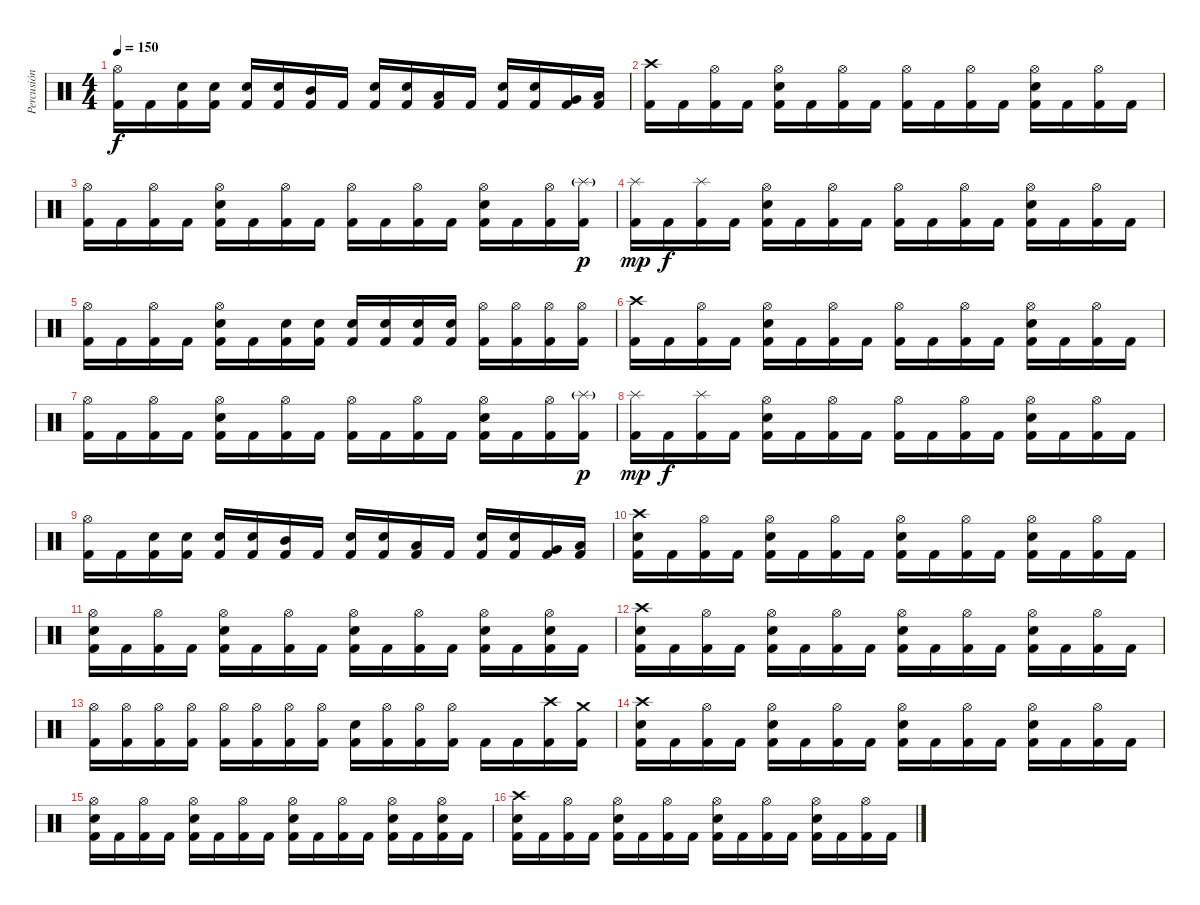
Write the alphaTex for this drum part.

\track ("Percusión" "Percusión") {instrument percussion}
\staff {score}
\articulation defaults
\ts (4 4)
\tempo 150
\clef neutral
\ks c
("Hi-Hat (open)" "Kick (hit) 2").16{dy f} "Kick (hit) 2".16 ("Snare (hit) 2" "Kick (hit) 2").16 ("Snare (hit) 2" "Kick (hit) 2").16 ("Snare (hit) 2" "Kick (hit) 2").16 ("Snare (hit) 2" "Kick (hit) 2").16 ("Mid Tom (hit)" "Kick (hit) 2").16 "Kick (hit) 2".16 ("Snare (hit) 2" "Kick (hit) 2").16 ("Snare (hit) 2" "Kick (hit) 2").16 ("Low Tom (hit)" "Kick (hit) 2").16 "Kick (hit) 2".16 ("Snare (hit) 2" "Kick (hit) 2").16 ("Snare (hit) 2" "Kick (hit) 2").16 ("Very Low Tom (hit)" "Kick (hit) 2").16 ("Low Floor Tom (hit)" "Kick (hit) 2").16 |
("Crash high (hit)" "Kick (hit) 2").16 "Kick (hit) 2".16 ("Hi-Hat (open)" "Kick (hit) 2").16 "Kick (hit) 2".16 ("Hi-Hat (open)" "Snare (hit) 2" "Kick (hit) 2").16 "Kick (hit) 2".16 ("Hi-Hat (open)" "Kick (hit) 2").16 "Kick (hit) 2".16 ("Hi-Hat (open)" "Kick (hit) 2").16 "Kick (hit) 2".16 ("Hi-Hat (open)" "Kick (hit) 2").16 "Kick (hit) 2".16 ("Hi-Hat (open)" "Snare (hit) 2" "Kick (hit) 2").16 "Kick (hit) 2".16 ("Hi-Hat (open)" "Kick (hit) 2").16 "Kick (hit) 2".16 |
("Hi-Hat (open)" "Kick (hit) 2").16 "Kick (hit) 2".16 ("Hi-Hat (open)" "Kick (hit) 2").16 "Kick (hit) 2".16 ("Hi-Hat (open)" "Snare (hit) 2" "Kick (hit) 2").16 "Kick (hit) 2".16 ("Hi-Hat (open)" "Kick (hit) 2").16 "Kick (hit) 2".16 ("Hi-Hat (open)" "Kick (hit) 2").16 "Kick (hit) 2".16 ("Hi-Hat (open)" "Kick (hit) 2").16 "Kick (hit) 2".16 ("Hi-Hat (open)" "Snare (hit) 2" "Kick (hit) 2").16 "Kick (hit) 2".16 ("Hi-Hat (open)" "Kick (hit) 2").16 ("Splash (hit)"{g} "Kick (hit) 2").16{dy p} |
("Splash (hit)" "Kick (hit) 2").16{dy mp} "Kick (hit) 2".16{dy f} ("Splash (hit)" "Kick (hit) 2").16 "Kick (hit) 2".16 ("Hi-Hat (open)" "Snare (hit) 2" "Kick (hit) 2").16 "Kick (hit) 2".16 ("Hi-Hat (open)" "Kick (hit) 2").16 "Kick (hit) 2".16 ("Hi-Hat (open)" "Kick (hit) 2").16 "Kick (hit) 2".16 ("Hi-Hat (open)" "Kick (hit) 2").16 "Kick (hit) 2".16 ("Hi-Hat (open)" "Snare (hit) 2" "Kick (hit) 2").16 "Kick (hit) 2".16 ("Hi-Hat (open)" "Kick (hit) 2").16 "Kick (hit) 2".16 |
("Hi-Hat (open)" "Kick (hit) 2").16 "Kick (hit) 2".16 ("Hi-Hat (open)" "Kick (hit) 2").16 "Kick (hit) 2".16 ("Hi-Hat (open)" "Snare (hit) 2" "Kick (hit) 2").16 "Kick (hit) 2".16 ("Snare (hit) 2" "Kick (hit) 2").16 ("Snare (hit) 2" "Kick (hit) 2").16 ("Snare (hit) 2" "Kick (hit) 2").16 ("Snare (hit) 2" "Kick (hit) 2").16 ("Snare (hit) 2" "Kick (hit) 2").16 ("Snare (hit) 2" "Kick (hit) 2").16 ("Hi-Hat (open)" "Kick (hit) 2").16 ("Hi-Hat (open)" "Kick (hit) 2").16 ("Hi-Hat (open)" "Kick (hit) 2").16 ("Hi-Hat (open)" "Kick (hit) 2").16 |
("Crash high (hit)" "Kick (hit) 2").16 "Kick (hit) 2".16 ("Hi-Hat (open)" "Kick (hit) 2").16 "Kick (hit) 2".16 ("Hi-Hat (open)" "Snare (hit) 2" "Kick (hit) 2").16 "Kick (hit) 2".16 ("Hi-Hat (open)" "Kick (hit) 2").16 "Kick (hit) 2".16 ("Hi-Hat (open)" "Kick (hit) 2").16 "Kick (hit) 2".16 ("Hi-Hat (open)" "Kick (hit) 2").16 "Kick (hit) 2".16 ("Hi-Hat (open)" "Snare (hit) 2" "Kick (hit) 2").16 "Kick (hit) 2".16 ("Hi-Hat (open)" "Kick (hit) 2").16 "Kick (hit) 2".16 |
("Hi-Hat (open)" "Kick (hit) 2").16 "Kick (hit) 2".16 ("Hi-Hat (open)" "Kick (hit) 2").16 "Kick (hit) 2".16 ("Hi-Hat (open)" "Snare (hit) 2" "Kick (hit) 2").16 "Kick (hit) 2".16 ("Hi-Hat (open)" "Kick (hit) 2").16 "Kick (hit) 2".16 ("Hi-Hat (open)" "Kick (hit) 2").16 "Kick (hit) 2".16 ("Hi-Hat (open)" "Kick (hit) 2").16 "Kick (hit) 2".16 ("Hi-Hat (open)" "Snare (hit) 2" "Kick (hit) 2").16 "Kick (hit) 2".16 ("Hi-Hat (open)" "Kick (hit) 2").16 ("Splash (hit)"{g} "Kick (hit) 2").16{dy p} |
("Splash (hit)" "Kick (hit) 2").16{dy mp} "Kick (hit) 2".16{dy f} ("Splash (hit)" "Kick (hit) 2").16 "Kick (hit) 2".16 ("Hi-Hat (open)" "Snare (hit) 2" "Kick (hit) 2").16 "Kick (hit) 2".16 ("Hi-Hat (open)" "Kick (hit) 2").16 "Kick (hit) 2".16 ("Hi-Hat (open)" "Kick (hit) 2").16 "Kick (hit) 2".16 ("Hi-Hat (open)" "Kick (hit) 2").16 "Kick (hit) 2".16 ("Hi-Hat (open)" "Snare (hit) 2" "Kick (hit) 2").16 "Kick (hit) 2".16 ("Hi-Hat (open)" "Kick (hit) 2").16 "Kick (hit) 2".16 |
("Hi-Hat (open)" "Kick (hit) 2").16 "Kick (hit) 2".16 ("Snare (hit) 2" "Kick (hit) 2").16 ("Snare (hit) 2" "Kick (hit) 2").16 ("Snare (hit) 2" "Kick (hit) 2").16 ("Snare (hit) 2" "Kick (hit) 2").16 ("Mid Tom (hit)" "Kick (hit) 2").16 "Kick (hit) 2".16 ("Snare (hit) 2" "Kick (hit) 2").16 ("Snare (hit) 2" "Kick (hit) 2").16 ("Low Tom (hit)" "Kick (hit) 2").16 "Kick (hit) 2".16 ("Snare (hit) 2" "Kick (hit) 2").16 ("Snare (hit) 2" "Kick (hit) 2").16 ("Very Low Tom (hit)" "Kick (hit) 2").16 ("Low Floor Tom (hit)" "Kick (hit) 2").16 |
("Crash high (hit)" "Snare (hit) 2" "Kick (hit) 2").16 "Kick (hit) 2".16 ("Hi-Hat (open)" "Kick (hit) 2").16 "Kick (hit) 2".16 ("Hi-Hat (open)" "Snare (hit) 2" "Kick (hit) 2").16 "Kick (hit) 2".16 ("Hi-Hat (open)" "Kick (hit) 2").16 "Kick (hit) 2".16 ("Hi-Hat (open)" "Snare (hit) 2" "Kick (hit) 2").16 "Kick (hit) 2".16 ("Hi-Hat (open)" "Kick (hit) 2").16 "Kick (hit) 2".16 ("Hi-Hat (open)" "Snare (hit) 2" "Kick (hit) 2").16 "Kick (hit) 2".16 ("Hi-Hat (open)" "Kick (hit) 2").16 "Kick (hit) 2".16 |
("Hi-Hat (open)" "Snare (hit) 2" "Kick (hit) 2").16 "Kick (hit) 2".16 ("Hi-Hat (open)" "Kick (hit) 2").16 "Kick (hit) 2".16 ("Hi-Hat (open)" "Snare (hit) 2" "Kick (hit) 2").16 "Kick (hit) 2".16 ("Hi-Hat (open)" "Kick (hit) 2").16 "Kick (hit) 2".16 ("Hi-Hat (open)" "Snare (hit) 2" "Kick (hit) 2").16 "Kick (hit) 2".16 ("Hi-Hat (open)" "Kick (hit) 2").16 "Kick (hit) 2".16 ("Hi-Hat (open)" "Snare (hit) 2" "Kick (hit) 2").16 "Kick (hit) 2".16 ("Hi-Hat (open)" "Snare (hit) 2" "Kick (hit) 2").16 "Kick (hit) 2".16 |
("Crash high (hit)" "Snare (hit) 2" "Kick (hit) 2").16 "Kick (hit) 2".16 ("Hi-Hat (open)" "Kick (hit) 2").16 "Kick (hit) 2".16 ("Hi-Hat (open)" "Snare (hit) 2" "Kick (hit) 2").16 "Kick (hit) 2".16 ("Hi-Hat (open)" "Kick (hit) 2").16 "Kick (hit) 2".16 ("Hi-Hat (open)" "Snare (hit) 2" "Kick (hit) 2").16 "Kick (hit) 2".16 ("Hi-Hat (open)" "Kick (hit) 2").16 "Kick (hit) 2".16 ("Hi-Hat (open)" "Snare (hit) 2" "Kick (hit) 2").16 "Kick (hit) 2".16 ("Hi-Hat (open)" "Kick (hit) 2").16 "Kick (hit) 2".16 |
("Hi-Hat (open)" "Kick (hit) 2").16 ("Hi-Hat (open)" "Kick (hit) 2").16 ("Hi-Hat (open)" "Kick (hit) 2").16 ("Hi-Hat (open)" "Kick (hit) 2").16 ("Hi-Hat (open)" "Kick (hit) 2").16 ("Hi-Hat (open)" "Kick (hit) 2").16 ("Hi-Hat (open)" "Kick (hit) 2").16 ("Hi-Hat (open)" "Kick (hit) 2").16 ("Snare (hit) 2" "Kick (hit) 2").16 ("Hi-Hat (open)" "Kick (hit) 2").16 ("Hi-Hat (open)" "Kick (hit) 2").16 ("Hi-Hat (open)" "Kick (hit) 2").16 "Kick (hit) 2".16 "Kick (hit) 2".16 ("Crash high (hit)" "Kick (hit) 2").16 ("Crash medium (hit)" "Kick (hit) 2").16 |
("Crash high (hit)" "Snare (hit) 2" "Kick (hit) 2").16 "Kick (hit) 2".16 ("Hi-Hat (open)" "Kick (hit) 2").16 "Kick (hit) 2".16 ("Hi-Hat (open)" "Snare (hit) 2" "Kick (hit) 2").16 "Kick (hit) 2".16 ("Hi-Hat (open)" "Kick (hit) 2").16 "Kick (hit) 2".16 ("Hi-Hat (open)" "Snare (hit) 2" "Kick (hit) 2").16 "Kick (hit) 2".16 ("Hi-Hat (open)" "Kick (hit) 2").16 "Kick (hit) 2".16 ("Hi-Hat (open)" "Snare (hit) 2" "Kick (hit) 2").16 "Kick (hit) 2".16 ("Hi-Hat (open)" "Kick (hit) 2").16 "Kick (hit) 2".16 |
("Hi-Hat (open)" "Snare (hit) 2" "Kick (hit) 2").16 "Kick (hit) 2".16 ("Hi-Hat (open)" "Kick (hit) 2").16 "Kick (hit) 2".16 ("Hi-Hat (open)" "Snare (hit) 2" "Kick (hit) 2").16 "Kick (hit) 2".16 ("Hi-Hat (open)" "Kick (hit) 2").16 "Kick (hit) 2".16 ("Hi-Hat (open)" "Snare (hit) 2" "Kick (hit) 2").16 "Kick (hit) 2".16 ("Hi-Hat (open)" "Kick (hit) 2").16 "Kick (hit) 2".16 ("Hi-Hat (open)" "Snare (hit) 2" "Kick (hit) 2").16 "Kick (hit) 2".16 ("Hi-Hat (open)" "Snare (hit) 2" "Kick (hit) 2").16 "Kick (hit) 2".16 |
("Crash high (hit)" "Snare (hit) 2" "Kick (hit) 2").16 "Kick (hit) 2".16 ("Hi-Hat (open)" "Kick (hit) 2").16 "Kick (hit) 2".16 ("Hi-Hat (open)" "Snare (hit) 2" "Kick (hit) 2").16 "Kick (hit) 2".16 ("Hi-Hat (open)" "Kick (hit) 2").16 "Kick (hit) 2".16 ("Hi-Hat (open)" "Snare (hit) 2" "Kick (hit) 2").16 "Kick (hit) 2".16 ("Hi-Hat (open)" "Kick (hit) 2").16 "Kick (hit) 2".16 ("Hi-Hat (open)" "Snare (hit) 2" "Kick (hit) 2").16 "Kick (hit) 2".16 ("Hi-Hat (open)" "Kick (hit) 2").16 "Kick (hit) 2".16
